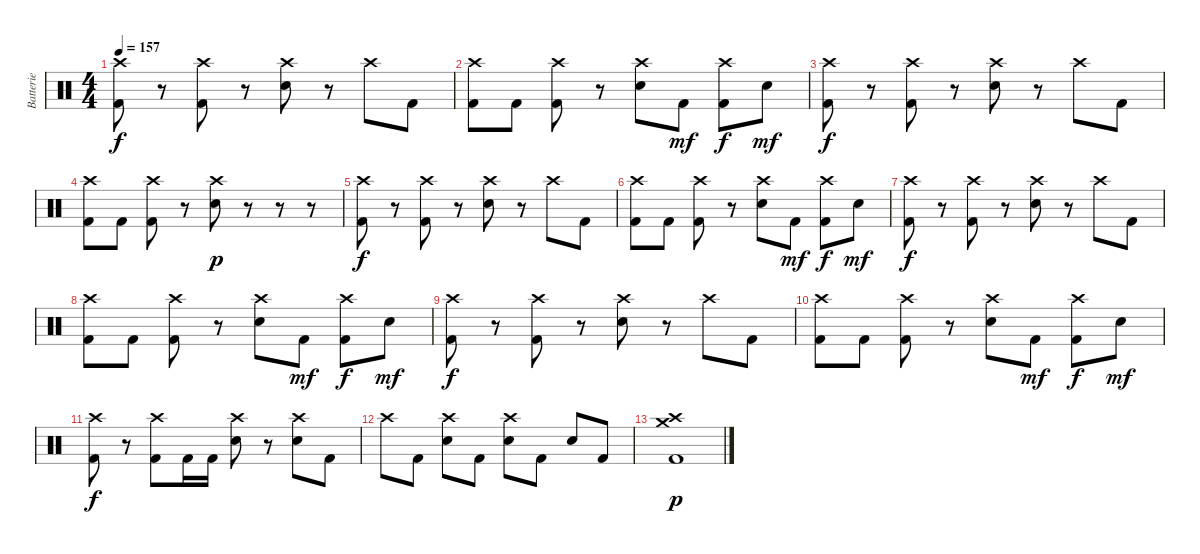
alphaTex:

\track ("Batterie" "Batterie") {instrument percussion}
\staff {score}
\articulation defaults
\ts (4 4)
\tempo 157
\clef neutral
\ks c
("Kick (hit) 2" "Crash high (hit)").8{dy f} r.8 ("Kick (hit) 2" "Crash high (hit)").8 r.8 ("Electric Snare (hit)" "Crash high (hit)").8 r.8 "Crash high (hit)".8 "Kick (hit) 2".8 |
("Kick (hit) 2" "Crash high (hit)").8 "Kick (hit) 2".8 ("Kick (hit) 2" "Crash high (hit)").8 r.8 ("Electric Snare (hit)" "Crash high (hit)").8 "Kick (hit) 2".8{dy mf} ("Kick (hit) 2" "Crash high (hit)").8{dy f} "Electric Snare (hit)".8{dy mf} |
("Kick (hit) 2" "Crash high (hit)").8{dy f} r.8 ("Kick (hit) 2" "Crash high (hit)").8 r.8 ("Electric Snare (hit)" "Crash high (hit)").8 r.8 "Crash high (hit)".8 "Kick (hit) 2".8 |
("Kick (hit) 2" "Crash high (hit)").8 "Kick (hit) 2".8 ("Kick (hit) 2" "Crash high (hit)").8 r.8 ("Electric Snare (hit)" "Crash high (hit)").8{dy p} r.8 r.8 r.8 |
("Kick (hit) 2" "Crash high (hit)").8{dy f} r.8 ("Kick (hit) 2" "Crash high (hit)").8 r.8 ("Electric Snare (hit)" "Crash high (hit)").8 r.8 "Crash high (hit)".8 "Kick (hit) 2".8 |
("Kick (hit) 2" "Crash high (hit)").8 "Kick (hit) 2".8 ("Kick (hit) 2" "Crash high (hit)").8 r.8 ("Electric Snare (hit)" "Crash high (hit)").8 "Kick (hit) 2".8{dy mf} ("Kick (hit) 2" "Crash high (hit)").8{dy f} "Electric Snare (hit)".8{dy mf} |
("Kick (hit) 2" "Crash high (hit)").8{dy f} r.8 ("Kick (hit) 2" "Crash high (hit)").8 r.8 ("Electric Snare (hit)" "Crash high (hit)").8 r.8 "Crash high (hit)".8 "Kick (hit) 2".8 |
("Kick (hit) 2" "Crash high (hit)").8 "Kick (hit) 2".8 ("Kick (hit) 2" "Crash high (hit)").8 r.8 ("Electric Snare (hit)" "Crash high (hit)").8 "Kick (hit) 2".8{dy mf} ("Kick (hit) 2" "Crash high (hit)").8{dy f} "Electric Snare (hit)".8{dy mf} |
("Kick (hit) 2" "Crash high (hit)").8{dy f} r.8 ("Kick (hit) 2" "Crash high (hit)").8 r.8 ("Electric Snare (hit)" "Crash high (hit)").8 r.8 "Crash high (hit)".8 "Kick (hit) 2".8 |
("Kick (hit) 2" "Crash high (hit)").8 "Kick (hit) 2".8 ("Kick (hit) 2" "Crash high (hit)").8 r.8 ("Electric Snare (hit)" "Crash high (hit)").8 "Kick (hit) 2".8{dy mf} ("Kick (hit) 2" "Crash high (hit)").8{dy f} "Electric Snare (hit)".8{dy mf} |
("Kick (hit) 2" "Crash high (hit)").8{dy f} r.8 ("Kick (hit) 2" "Crash high (hit)").8 "Kick (hit) 2".16 "Kick (hit) 2".16 ("Electric Snare (hit)" "Crash high (hit)").8 r.8 ("Electric Snare (hit)" "Crash high (hit)").8 "Kick (hit) 2".8 |
"Crash high (hit)".8 "Kick (hit) 2".8 ("Electric Snare (hit)" "Crash high (hit)").8 "Kick (hit) 2".8 ("Electric Snare (hit)" "Crash high (hit)").8 "Kick (hit) 2".8 "Electric Snare (hit)".8 "Kick (hit) 2".8 |
("Kick (hit) 2" "Crash medium (hit)" "Crash high (hit)").1{dy p}
